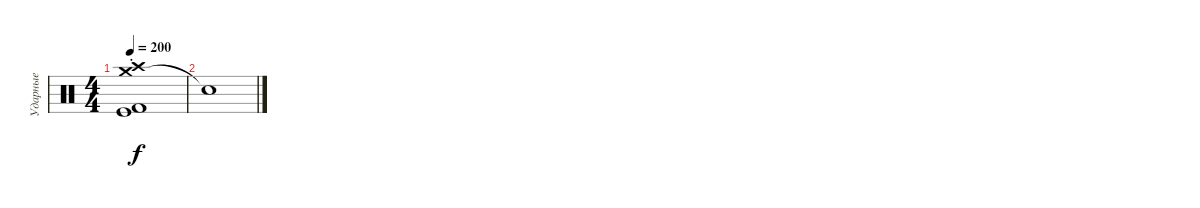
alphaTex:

\track ("Ударные" "Ударные") {instrument percussion}
\staff {score}
\articulation defaults
\ts (4 4)
\tempo 200
\clef neutral
\ks c
("Crash medium (hit)"{st} "Crash high (hit)" "Kick (hit)" "Kick (hit) 2").1{dy f} |
"Snare (hit)"{t}.1
